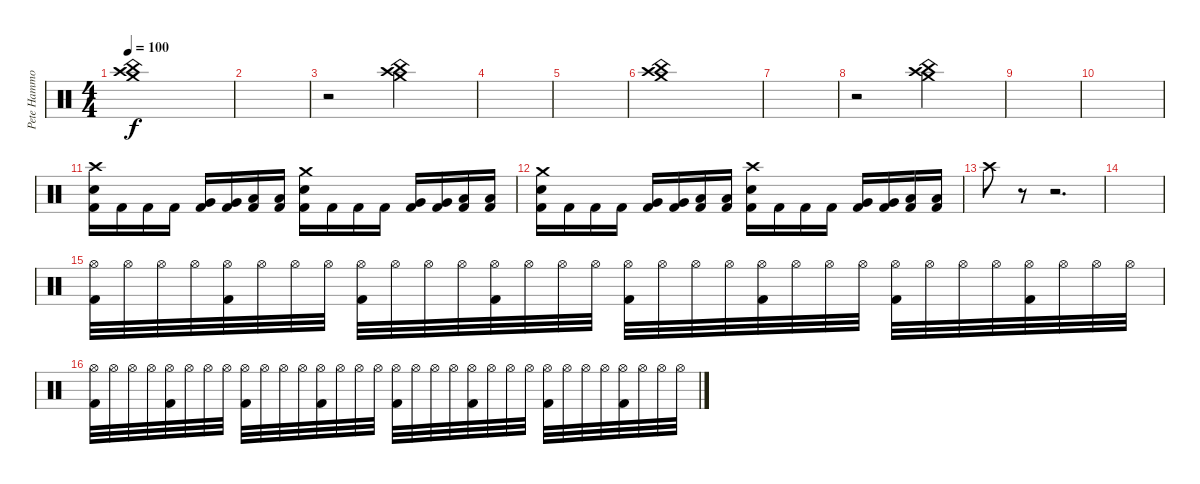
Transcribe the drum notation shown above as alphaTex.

\track ("Pete Hammoura" "Pete Hammo") {instrument percussion}
\staff {score}
\articulation defaults
\ts (4 4)
\tempo 100
\clef neutral
\ks c
("Crash medium (hit)" "Crash high (hit)" "China (hit)").1{dy f} |
|
r.2 ("Crash medium (hit)" "Crash high (hit)" "China (hit)").2 |
|
|
("Crash medium (hit)" "Crash high (hit)" "China (hit)").1 |
|
r.2 ("Crash medium (hit)" "Crash high (hit)" "China (hit)").2 |
|
|
("Crash high (hit)" "Electric Snare (hit)" "Kick (hit) 2").16 "Kick (hit) 2".16 "Kick (hit) 2".16 "Kick (hit) 2".16 ("Very Low Tom (hit)" "Kick (hit) 2").16 ("Very Low Tom (hit)" "Kick (hit) 2").16 ("Low Floor Tom (hit)" "Kick (hit) 2").16 ("Low Floor Tom (hit)" "Kick (hit) 2").16 ("Crash medium (hit)" "Electric Snare (hit)" "Kick (hit) 2").16 "Kick (hit) 2".16 "Kick (hit) 2".16 "Kick (hit) 2".16 ("Very Low Tom (hit)" "Kick (hit) 2").16 ("Very Low Tom (hit)" "Kick (hit) 2").16 ("Low Floor Tom (hit)" "Kick (hit) 2").16 ("Low Floor Tom (hit)" "Kick (hit) 2").16 |
("Crash medium (hit)" "Electric Snare (hit)" "Kick (hit) 2").16 "Kick (hit) 2".16 "Kick (hit) 2".16 "Kick (hit) 2".16 ("Very Low Tom (hit)" "Kick (hit) 2").16 ("Very Low Tom (hit)" "Kick (hit) 2").16 ("Low Floor Tom (hit)" "Kick (hit) 2").16 ("Low Floor Tom (hit)" "Kick (hit) 2").16 ("Crash high (hit)" "Electric Snare (hit)" "Kick (hit) 2").16 "Kick (hit) 2".16 "Kick (hit) 2".16 "Kick (hit) 2".16 ("Very Low Tom (hit)" "Kick (hit) 2").16 ("Very Low Tom (hit)" "Kick (hit) 2").16 ("Low Floor Tom (hit)" "Kick (hit) 2").16 ("Low Floor Tom (hit)" "Kick (hit) 2").16 |
"Crash high (hit)".8 r.8{volume 0} r.2{d} |
|
("Hi-Hat (open)" "Kick (hit) 2").32{volume 13} "Hi-Hat (open)".32 "Hi-Hat (open)".32 "Hi-Hat (open)".32 ("Hi-Hat (open)" "Kick (hit) 2").32 "Hi-Hat (open)".32 "Hi-Hat (open)".32 "Hi-Hat (open)".32 ("Hi-Hat (open)" "Kick (hit) 2").32 "Hi-Hat (open)".32 "Hi-Hat (open)".32 "Hi-Hat (open)".32 ("Hi-Hat (open)" "Kick (hit) 2").32 "Hi-Hat (open)".32 "Hi-Hat (open)".32 "Hi-Hat (open)".32 ("Hi-Hat (open)" "Kick (hit) 2").32 "Hi-Hat (open)".32 "Hi-Hat (open)".32 "Hi-Hat (open)".32 ("Hi-Hat (open)" "Kick (hit) 2").32 "Hi-Hat (open)".32 "Hi-Hat (open)".32 "Hi-Hat (open)".32 ("Hi-Hat (open)" "Kick (hit) 2").32 "Hi-Hat (open)".32 "Hi-Hat (open)".32 "Hi-Hat (open)".32 ("Hi-Hat (open)" "Kick (hit) 2").32 "Hi-Hat (open)".32 "Hi-Hat (open)".32 "Hi-Hat (open)".32 |
("Hi-Hat (open)" "Kick (hit) 2").32 "Hi-Hat (open)".32 "Hi-Hat (open)".32 "Hi-Hat (open)".32 ("Hi-Hat (open)" "Kick (hit) 2").32 "Hi-Hat (open)".32 "Hi-Hat (open)".32 "Hi-Hat (open)".32 ("Hi-Hat (open)" "Kick (hit) 2").32 "Hi-Hat (open)".32 "Hi-Hat (open)".32 "Hi-Hat (open)".32 ("Hi-Hat (open)" "Kick (hit) 2").32 "Hi-Hat (open)".32 "Hi-Hat (open)".32 "Hi-Hat (open)".32 ("Hi-Hat (open)" "Kick (hit) 2").32 "Hi-Hat (open)".32 "Hi-Hat (open)".32 "Hi-Hat (open)".32 ("Hi-Hat (open)" "Kick (hit) 2").32 "Hi-Hat (open)".32 "Hi-Hat (open)".32 "Hi-Hat (open)".32 ("Hi-Hat (open)" "Kick (hit) 2").32 "Hi-Hat (open)".32 "Hi-Hat (open)".32 "Hi-Hat (open)".32 ("Hi-Hat (open)" "Kick (hit) 2").32 "Hi-Hat (open)".32 "Hi-Hat (open)".32 "Hi-Hat (open)".32
